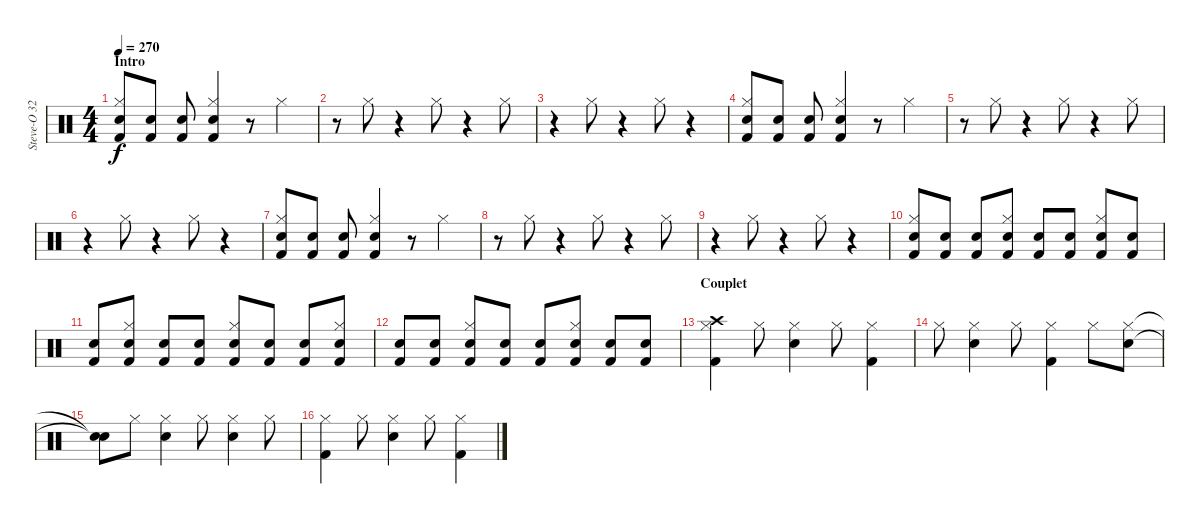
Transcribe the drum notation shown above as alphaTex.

\track ("Steve-O 32" "Steve-O 32") {instrument percussion}
\staff {score}
\articulation defaults
\ts (4 4)
\section ("" "Intro")
\tempo 270
\clef neutral
\ks c
("Electric Snare (hit)" "Hi-Hat (closed)" "Kick (hit) 2").8{dy f} ("Electric Snare (hit)" "Kick (hit) 2").8 ("Electric Snare (hit)" "Kick (hit) 2").8 ("Electric Snare (hit)" "Hi-Hat (closed)" "Kick (hit) 2").4 r.8 "Hi-Hat (closed)".4 |
r.8 "Hi-Hat (closed)".8 r.4 "Hi-Hat (closed)".8 r.4 "Hi-Hat (closed)".8 |
r.4 "Hi-Hat (closed)".8 r.4 "Hi-Hat (closed)".8 r.4 |
("Electric Snare (hit)" "Hi-Hat (closed)" "Kick (hit) 2").8 ("Electric Snare (hit)" "Kick (hit) 2").8 ("Electric Snare (hit)" "Kick (hit) 2").8 ("Electric Snare (hit)" "Hi-Hat (closed)" "Kick (hit) 2").4 r.8 "Hi-Hat (closed)".4 |
r.8 "Hi-Hat (closed)".8 r.4 "Hi-Hat (closed)".8 r.4 "Hi-Hat (closed)".8 |
r.4 "Hi-Hat (closed)".8 r.4 "Hi-Hat (closed)".8 r.4 |
("Electric Snare (hit)" "Hi-Hat (closed)" "Kick (hit) 2").8 ("Electric Snare (hit)" "Kick (hit) 2").8 ("Electric Snare (hit)" "Kick (hit) 2").8 ("Electric Snare (hit)" "Hi-Hat (closed)" "Kick (hit) 2").4 r.8 "Hi-Hat (closed)".4 |
r.8 "Hi-Hat (closed)".8 r.4 "Hi-Hat (closed)".8 r.4 "Hi-Hat (closed)".8 |
r.4 "Hi-Hat (closed)".8 r.4 "Hi-Hat (closed)".8 r.4 |
("Electric Snare (hit)" "Hi-Hat (closed)" "Kick (hit) 2").8 ("Electric Snare (hit)" "Kick (hit) 2").8 ("Electric Snare (hit)" "Kick (hit) 2").8 ("Electric Snare (hit)" "Hi-Hat (closed)" "Kick (hit) 2").8 ("Electric Snare (hit)" "Kick (hit) 2").8 ("Electric Snare (hit)" "Kick (hit) 2").8 ("Electric Snare (hit)" "Hi-Hat (closed)" "Kick (hit) 2").8 ("Electric Snare (hit)" "Kick (hit) 2").8 |
("Electric Snare (hit)" "Kick (hit) 2").8 ("Electric Snare (hit)" "Hi-Hat (closed)" "Kick (hit) 2").8 ("Electric Snare (hit)" "Kick (hit) 2").8 ("Electric Snare (hit)" "Kick (hit) 2").8 ("Electric Snare (hit)" "Hi-Hat (closed)" "Kick (hit) 2").8 ("Electric Snare (hit)" "Kick (hit) 2").8 ("Electric Snare (hit)" "Kick (hit) 2").8 ("Electric Snare (hit)" "Hi-Hat (closed)" "Kick (hit) 2").8 |
("Electric Snare (hit)" "Kick (hit) 2").8 ("Electric Snare (hit)" "Kick (hit) 2").8 ("Electric Snare (hit)" "Hi-Hat (closed)" "Kick (hit) 2").8 ("Electric Snare (hit)" "Kick (hit) 2").8 ("Electric Snare (hit)" "Kick (hit) 2").8 ("Electric Snare (hit)" "Hi-Hat (closed)" "Kick (hit) 2").8 ("Electric Snare (hit)" "Kick (hit) 2").8 ("Electric Snare (hit)" "Kick (hit) 2").8 |
\section ("" "Couplet")
("Crash high (hit)" "Hi-Hat (closed)" "Kick (hit) 2").4 "Hi-Hat (closed)".8 ("Electric Snare (hit)" "Hi-Hat (closed)").4 "Hi-Hat (closed)".8 ("Kick (hit) 2" "Hi-Hat (closed)").4 |
"Hi-Hat (closed)".8 ("Electric Snare (hit)" "Hi-Hat (closed)").4 "Hi-Hat (closed)".8 ("Kick (hit) 2" "Hi-Hat (closed)").4 "Hi-Hat (closed)".8 ("Electric Snare (hit)" "Hi-Hat (closed)").8 |
("Snare (hit)"{t} "Snare (hit)"{t}).8 "Hi-Hat (closed)".8 ("Electric Snare (hit)" "Hi-Hat (closed)").4 "Hi-Hat (closed)".8 ("Electric Snare (hit)" "Hi-Hat (closed)").4 "Hi-Hat (closed)".8 |
("Hi-Hat (closed)" "Kick (hit) 2").4 "Hi-Hat (closed)".8 ("Electric Snare (hit)" "Hi-Hat (closed)").4 "Hi-Hat (closed)".8 ("Kick (hit) 2" "Hi-Hat (closed)").4
